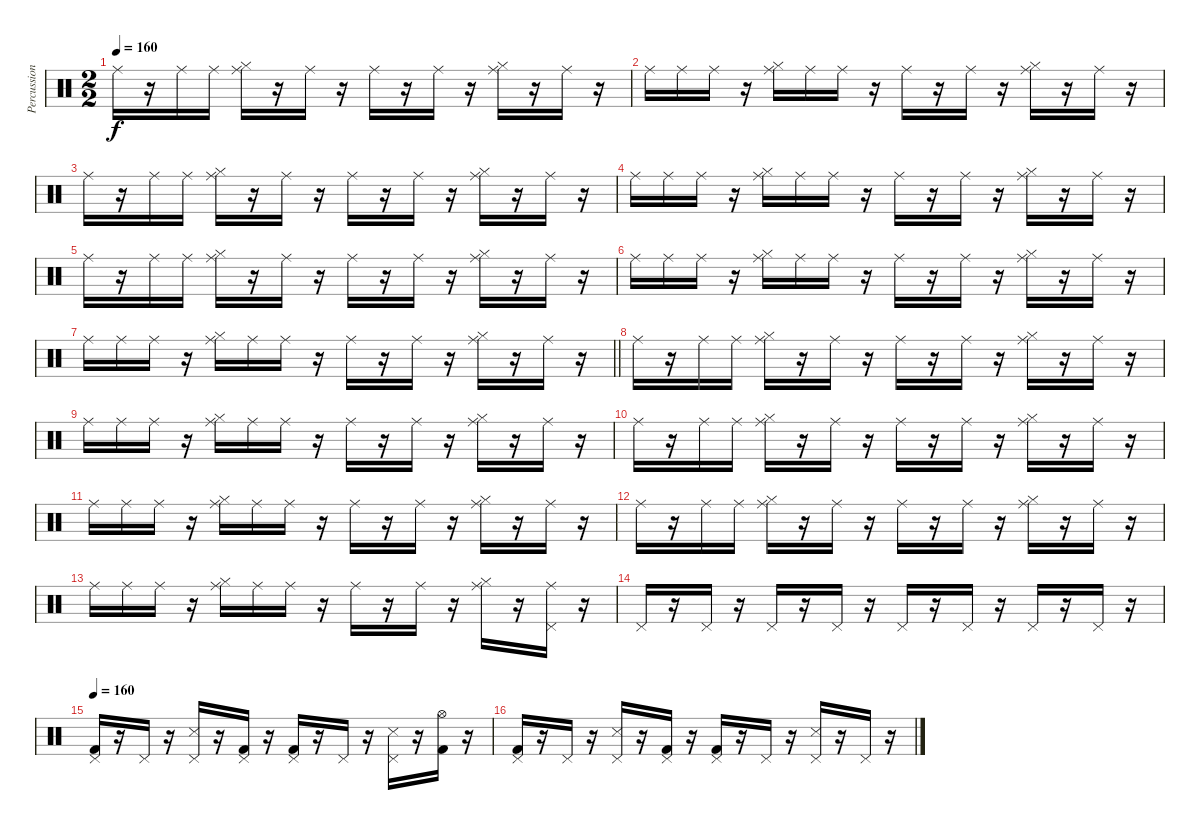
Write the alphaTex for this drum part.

\track ("Percussion" "Percussion") {instrument percussion}
\staff {score}
\articulation defaults
\ts (2 2)
\tempo 160
\clef neutral
\ks c "Ride (middle)".16{dy f balance 0}
r.16 "Ride (middle)".16 "Ride (middle)".16 ("Ride (middle)" "Hi-Hat (closed)").16 r.16 "Ride (middle)".16 r.16 "Ride (middle)".16 r.16 "Ride (middle)".16 r.16 ("Ride (middle)" "Hi-Hat (closed)").16 r.16 "Ride (middle)".16 r.16 |
"Ride (middle)".16 "Ride (middle)".16 "Ride (middle)".16 r.16 ("Ride (middle)" "Hi-Hat (closed)").16 "Ride (middle)".16 "Ride (middle)".16 r.16 "Ride (middle)".16 r.16 "Ride (middle)".16 r.16 ("Ride (middle)" "Hi-Hat (closed)").16 r.16 "Ride (middle)".16 r.16 |
"Ride (middle)".16{balance 16} r.16 "Ride (middle)".16 "Ride (middle)".16 ("Ride (middle)" "Hi-Hat (closed)").16 r.16 "Ride (middle)".16 r.16 "Ride (middle)".16 r.16 "Ride (middle)".16 r.16 ("Ride (middle)" "Hi-Hat (closed)").16 r.16 "Ride (middle)".16 r.16 |
"Ride (middle)".16 "Ride (middle)".16 "Ride (middle)".16 r.16 ("Ride (middle)" "Hi-Hat (closed)").16 "Ride (middle)".16 "Ride (middle)".16 r.16 "Ride (middle)".16 r.16 "Ride (middle)".16 r.16 ("Ride (middle)" "Hi-Hat (closed)").16 r.16 "Ride (middle)".16 r.16 |
"Ride (middle)".16{balance 0} r.16 "Ride (middle)".16 "Ride (middle)".16 ("Ride (middle)" "Hi-Hat (closed)").16 r.16 "Ride (middle)".16 r.16 "Ride (middle)".16 r.16 "Ride (middle)".16 r.16 ("Ride (middle)" "Hi-Hat (closed)").16 r.16 "Ride (middle)".16 r.16 |
"Ride (middle)".16 "Ride (middle)".16 "Ride (middle)".16 r.16 ("Ride (middle)" "Hi-Hat (closed)").16 "Ride (middle)".16 "Ride (middle)".16 r.16 "Ride (middle)".16 r.16 "Ride (middle)".16 r.16 ("Ride (middle)" "Hi-Hat (closed)").16 r.16 "Ride (middle)".16 r.16 |
\barLineRight lightlight "Ride (middle)".16{balance 0} "Ride (middle)".16 "Ride (middle)".16
r.16 ("Ride (middle)" "Hi-Hat (closed)").16 "Ride (middle)".16 "Ride (middle)".16 r.16 "Ride (middle)".16 r.16 "Ride (middle)".16 r.16 ("Ride (middle)" "Hi-Hat (closed)").16 r.16 "Ride (middle)".16 r.16 |
"Ride (middle)".16{balance 16} r.16 "Ride (middle)".16 "Ride (middle)".16 ("Ride (middle)" "Hi-Hat (closed)").16 r.16 "Ride (middle)".16 r.16 "Ride (middle)".16 r.16 "Ride (middle)".16 r.16 ("Ride (middle)" "Hi-Hat (closed)").16 r.16 "Ride (middle)".16 r.16 |
"Ride (middle)".16 "Ride (middle)".16 "Ride (middle)".16 r.16 ("Ride (middle)" "Hi-Hat (closed)").16 "Ride (middle)".16 "Ride (middle)".16 r.16 "Ride (middle)".16 r.16 "Ride (middle)".16 r.16 ("Ride (middle)" "Hi-Hat (closed)").16 r.16 "Ride (middle)".16 r.16 |
"Ride (middle)".16{balance 0} r.16 "Ride (middle)".16 "Ride (middle)".16 ("Ride (middle)" "Hi-Hat (closed)").16 r.16 "Ride (middle)".16 r.16 "Ride (middle)".16 r.16 "Ride (middle)".16 r.16 ("Ride (middle)" "Hi-Hat (closed)").16 r.16 "Ride (middle)".16 r.16 |
"Ride (middle)".16 "Ride (middle)".16 "Ride (middle)".16 r.16 ("Ride (middle)" "Hi-Hat (closed)").16 "Ride (middle)".16 "Ride (middle)".16 r.16 "Ride (middle)".16 r.16 "Ride (middle)".16 r.16 ("Ride (middle)" "Hi-Hat (closed)").16 r.16 "Ride (middle)".16 r.16 |
"Ride (middle)".16{balance 16} r.16 "Ride (middle)".16 "Ride (middle)".16 ("Ride (middle)" "Hi-Hat (closed)").16 r.16 "Ride (middle)".16 r.16 "Ride (middle)".16 r.16 "Ride (middle)".16 r.16 ("Ride (middle)" "Hi-Hat (closed)").16 r.16 "Ride (middle)".16 r.16 |
"Ride (middle)".16 "Ride (middle)".16 "Ride (middle)".16 r.16 ("Ride (middle)" "Hi-Hat (closed)").16 "Ride (middle)".16 "Ride (middle)".16 r.16 "Ride (middle)".16 r.16 "Ride (middle)".16 r.16 ("Ride (middle)" "Hi-Hat (closed)").16 r.16 ("Ride (middle)" "Pedal Hi-Hat (hit)").16 r.16 |
"Pedal Hi-Hat (hit)".16{balance 8} r.16 "Pedal Hi-Hat (hit)".16 r.16 "Pedal Hi-Hat (hit)".16 r.16 "Pedal Hi-Hat (hit)".16 r.16 "Pedal Hi-Hat (hit)".16 r.16 "Pedal Hi-Hat (hit)".16 r.16 "Pedal Hi-Hat (hit)".16 r.16 "Pedal Hi-Hat (hit)".16 r.16 |
\tempo 160
("Pedal Hi-Hat (hit)" "Kick (hit) 2").16 r.16 "Pedal Hi-Hat (hit)".16 r.16 ("Pedal Hi-Hat (hit)" "Metronome (hit)").16 r.16 ("Pedal Hi-Hat (hit)" "Kick (hit) 2").16 r.16 ("Pedal Hi-Hat (hit)" "Kick (hit) 2").16 r.16 "Pedal Hi-Hat (hit)".16 r.16 ("Pedal Hi-Hat (hit)" "Metronome (hit)").16 r.16 ("Hi-Hat (open)" "Kick (hit) 2").16 r.16 |
("Pedal Hi-Hat (hit)" "Kick (hit) 2").16 r.16 "Pedal Hi-Hat (hit)".16 r.16 ("Pedal Hi-Hat (hit)" "Metronome (hit)").16 r.16 ("Pedal Hi-Hat (hit)" "Kick (hit) 2").16 r.16 ("Pedal Hi-Hat (hit)" "Kick (hit) 2").16 r.16 "Pedal Hi-Hat (hit)".16 r.16 ("Pedal Hi-Hat (hit)" "Metronome (hit)").16 r.16 "Pedal Hi-Hat (hit)".16 r.16
